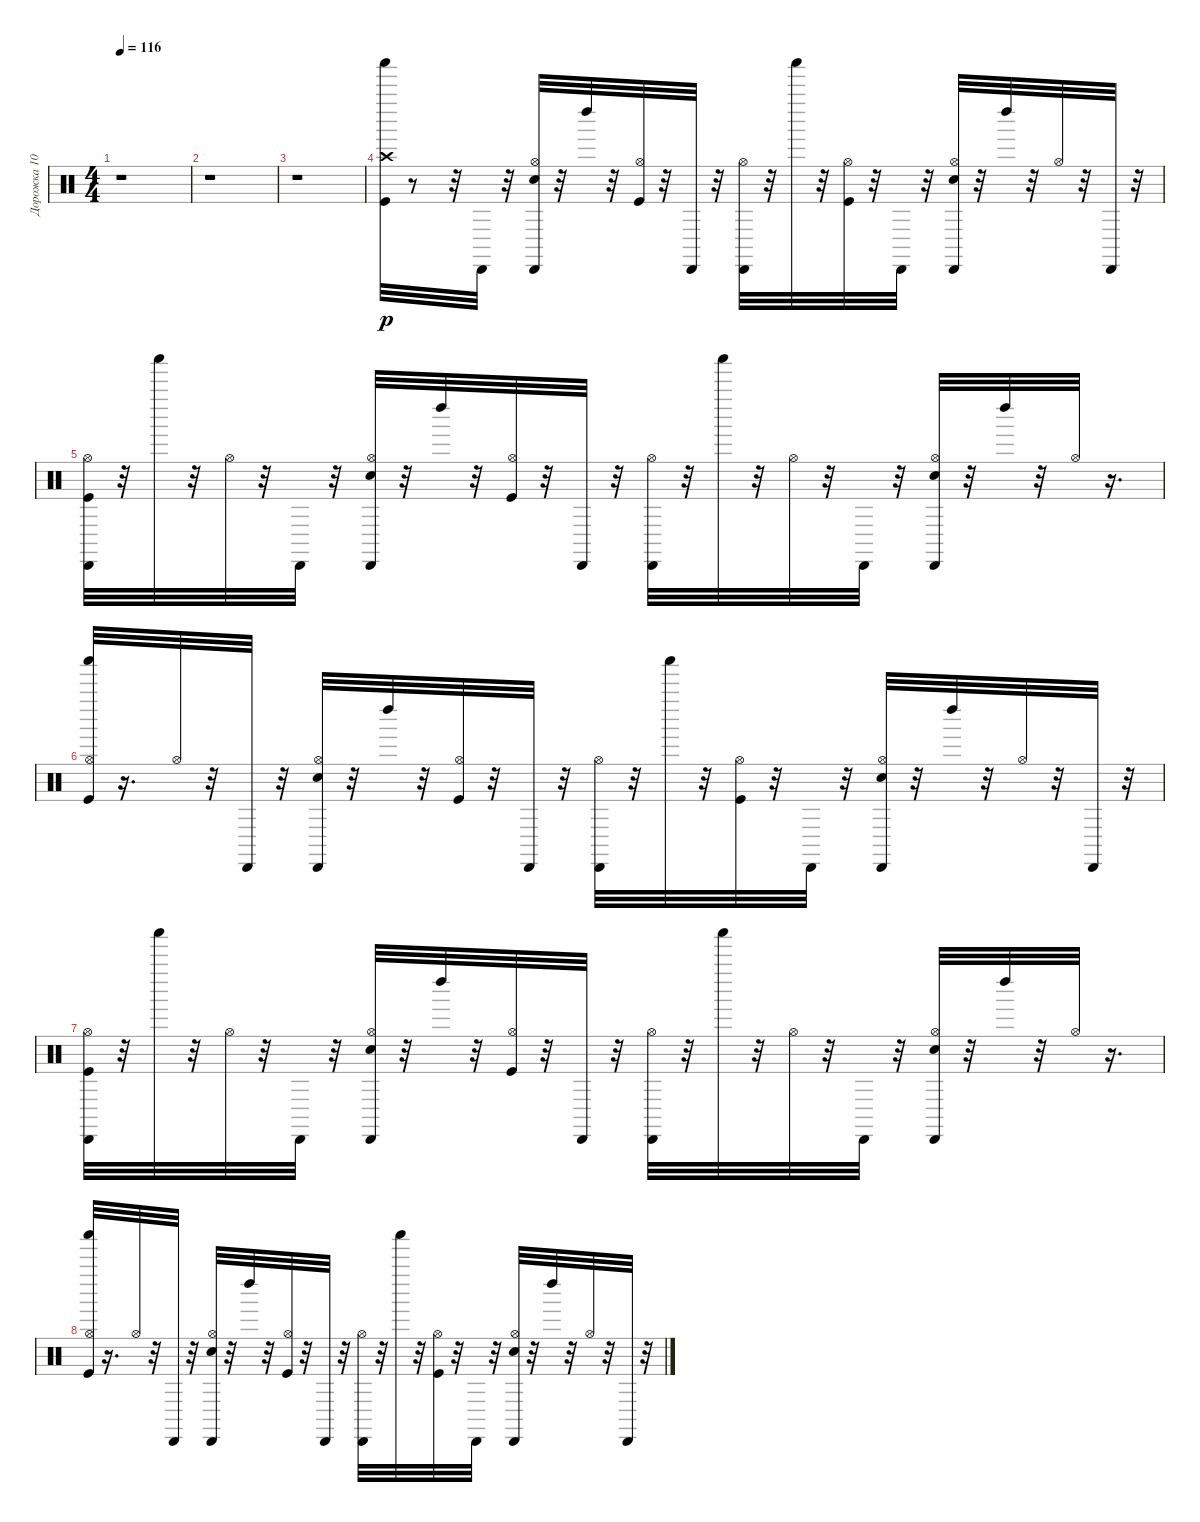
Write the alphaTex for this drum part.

\track ("Дорожка 10" "Дорожка 10") {instrument percussion}
\staff {score}
\articulation defaults
\ts (4 4)
\tempo 116
\clef neutral
\ks c
r.1{dy mf} |
r.1 |
r.1 |
("Kick (hit)" "Crash high (hit)" "Shaker (hit)").32{dy p} r.8 r.32 "Cabasa (hit)".32 r.32 ("Electric Snare (hit)" "Hi-Hat (open)" "Cabasa (hit)").32 r.32 "Left Maraca (hit)".32 r.32 ("Kick (hit)" "Hi-Hat (open)").32 r.32 "Cabasa (hit)".32 r.32 ("Hi-Hat (open)" "Cabasa (hit)").32 r.32 "Shaker (hit)".32 r.32 ("Kick (hit)" "Hi-Hat (open)").32 r.32 "Cabasa (hit)".32 r.32 ("Electric Snare (hit)" "Hi-Hat (open)" "Cabasa (hit)").32 r.32 "Left Maraca (hit)".32 r.32 "Hi-Hat (open)".32 r.32 "Cabasa (hit)".32 r.32 |
("Kick (hit)" "Hi-Hat (open)" "Cabasa (hit)").32 r.32 "Shaker (hit)".32 r.32 "Hi-Hat (open)".32 r.32 "Cabasa (hit)".32 r.32 ("Electric Snare (hit)" "Hi-Hat (open)" "Cabasa (hit)").32 r.32 "Left Maraca (hit)".32 r.32 ("Kick (hit)" "Hi-Hat (open)").32 r.32 "Cabasa (hit)".32 r.32 ("Hi-Hat (open)" "Cabasa (hit)").32 r.32 "Shaker (hit)".32 r.32 "Hi-Hat (open)".32 r.32 "Cabasa (hit)".32 r.32 ("Electric Snare (hit)" "Hi-Hat (open)" "Cabasa (hit)").32 r.32 "Left Maraca (hit)".32 r.32 "Hi-Hat (open)".32 r.16{d} |
("Kick (hit)" "Hi-Hat (open)" "Shaker (hit)").32 r.16{d} "Hi-Hat (open)".32 r.32 "Cabasa (hit)".32 r.32 ("Electric Snare (hit)" "Hi-Hat (open)" "Cabasa (hit)").32 r.32 "Left Maraca (hit)".32 r.32 ("Kick (hit)" "Hi-Hat (open)").32 r.32 "Cabasa (hit)".32 r.32 ("Hi-Hat (open)" "Cabasa (hit)").32 r.32 "Shaker (hit)".32 r.32 ("Kick (hit)" "Hi-Hat (open)").32 r.32 "Cabasa (hit)".32 r.32 ("Electric Snare (hit)" "Hi-Hat (open)" "Cabasa (hit)").32 r.32 "Left Maraca (hit)".32 r.32 "Hi-Hat (open)".32 r.32 "Cabasa (hit)".32 r.32 |
("Kick (hit)" "Hi-Hat (open)" "Cabasa (hit)").32 r.32 "Shaker (hit)".32 r.32 "Hi-Hat (open)".32 r.32 "Cabasa (hit)".32 r.32 ("Electric Snare (hit)" "Hi-Hat (open)" "Cabasa (hit)").32 r.32 "Left Maraca (hit)".32 r.32 ("Kick (hit)" "Hi-Hat (open)").32 r.32 "Cabasa (hit)".32 r.32 ("Hi-Hat (open)" "Cabasa (hit)").32 r.32 "Shaker (hit)".32 r.32 "Hi-Hat (open)".32 r.32 "Cabasa (hit)".32 r.32 ("Electric Snare (hit)" "Hi-Hat (open)" "Cabasa (hit)").32 r.32 "Left Maraca (hit)".32 r.32 "Hi-Hat (open)".32 r.16{d} |
("Kick (hit)" "Hi-Hat (open)" "Shaker (hit)").32 r.16{d} "Hi-Hat (open)".32 r.32 "Cabasa (hit)".32 r.32 ("Electric Snare (hit)" "Hi-Hat (open)" "Cabasa (hit)").32 r.32 "Left Maraca (hit)".32 r.32 ("Kick (hit)" "Hi-Hat (open)").32 r.32 "Cabasa (hit)".32 r.32 ("Hi-Hat (open)" "Cabasa (hit)").32 r.32 "Shaker (hit)".32 r.32 ("Kick (hit)" "Hi-Hat (open)").32 r.32 "Cabasa (hit)".32 r.32 ("Electric Snare (hit)" "Hi-Hat (open)" "Cabasa (hit)").32 r.32 "Left Maraca (hit)".32 r.32 "Hi-Hat (open)".32 r.32 "Cabasa (hit)".32 r.32
